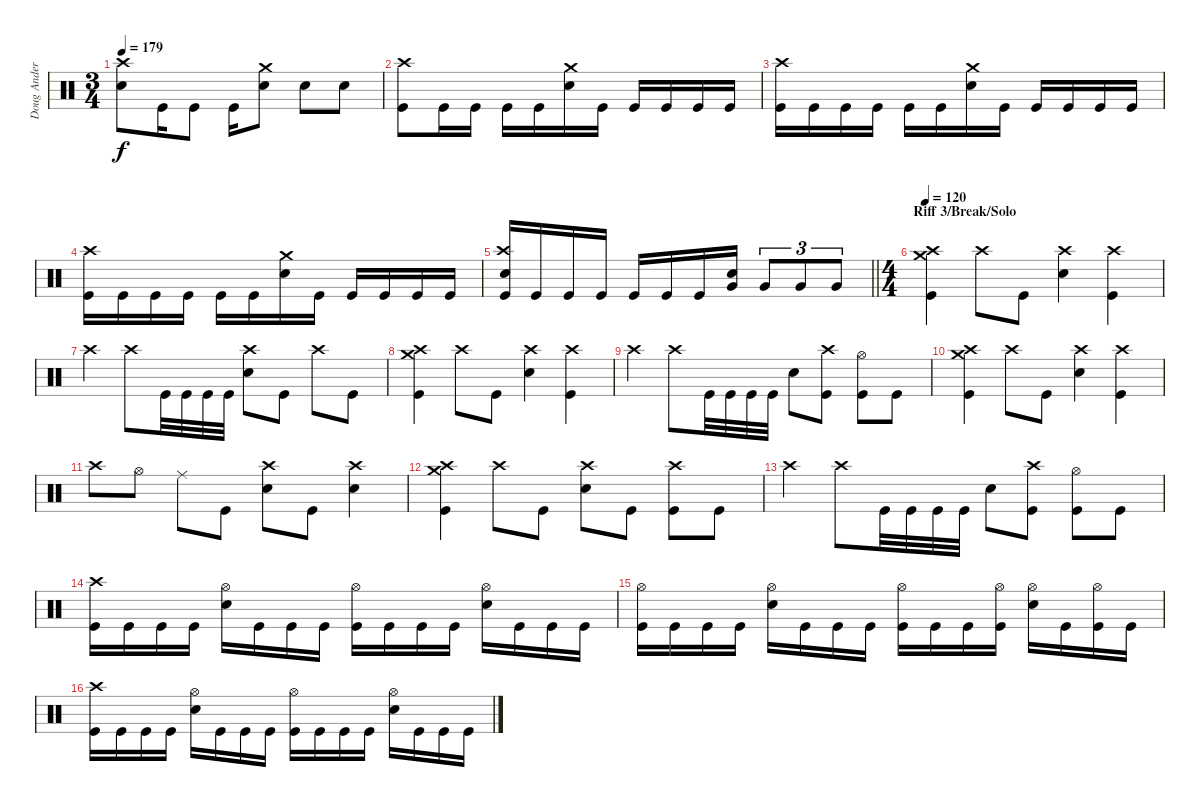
\track ("Doug Anderson" "Doug Ander") {instrument percussion}
\staff {score}
\articulation defaults
\ts (3 4)
\tempo 179
\clef neutral
\ks c
("Snare (hit) 2" "Crash high (hit)").8{dy f} "Kick (hit)".16 "Kick (hit)".8 "Kick (hit)".16 ("Snare (hit) 2" "Crash medium (hit)").8 "Snare (hit) 2".8 "Snare (hit) 2".8 |
("Kick (hit)" "Crash high (hit)").8 "Kick (hit)".16 "Kick (hit)".16 "Kick (hit)".16 "Kick (hit)".16 ("Snare (hit) 2" "Crash medium (hit)").16 "Kick (hit)".16 "Kick (hit)".16 "Kick (hit)".16 "Kick (hit)".16 "Kick (hit)".16 |
("Kick (hit)" "Crash high (hit)").16 "Kick (hit)".16 "Kick (hit)".16 "Kick (hit)".16 "Kick (hit)".16 "Kick (hit)".16 ("Snare (hit) 2" "Crash medium (hit)").16 "Kick (hit)".16 "Kick (hit)".16 "Kick (hit)".16 "Kick (hit)".16 "Kick (hit)".16 |
("Kick (hit)" "Crash high (hit)").16 "Kick (hit)".16 "Kick (hit)".16 "Kick (hit)".16 "Kick (hit)".16 "Kick (hit)".16 ("Snare (hit) 2" "Crash medium (hit)").16 "Kick (hit)".16 "Kick (hit)".16 "Kick (hit)".16 "Kick (hit)".16 "Kick (hit)".16 |
\barLineRight lightlight
("Crash high (hit)" "Snare (hit) 2" "Kick (hit)").16 "Kick (hit)".16 "Kick (hit)".16 "Kick (hit)".16 "Kick (hit)".16 "Kick (hit)".16 "Kick (hit)".16 ("Snare (hit) 2" "Very Low Tom (hit)").16 "Very Low Tom (hit)".8{tu (3 2)} "Very Low Tom (hit)".8{tu (3 2)} "Very Low Tom (hit)".8{tu (3 2)} |
\ts (4 4)
\section ("" "Riff 3/Break/Solo")
\tempo 120
("Kick (hit)" "Crash high (hit)" "Crash medium (hit)").4 "Crash high (hit)".8 "Kick (hit)".8 ("Snare (hit) 2" "Crash high (hit)").4 ("Kick (hit)" "Crash high (hit)").4 |
"Crash high (hit)".4 "Crash high (hit)".8 "Kick (hit)".32 "Kick (hit)".32 "Kick (hit)".32 "Kick (hit)".32 ("Snare (hit) 2" "Crash high (hit)").8 "Kick (hit)".8 "Crash high (hit)".8 "Kick (hit)".8 |
("Kick (hit)" "Crash high (hit)" "Crash medium (hit)").4 "Crash high (hit)".8 "Kick (hit)".8 ("Snare (hit) 2" "Crash high (hit)").4 ("Kick (hit)" "Crash high (hit)").4 |
"Crash high (hit)".4 "Crash high (hit)".8 "Kick (hit)".32 "Kick (hit)".32 "Kick (hit)".32 "Kick (hit)".32 "Snare (hit) 2".8 ("Kick (hit)" "Crash high (hit)").8 ("Kick (hit)" "Hi-Hat (open)").8 "Kick (hit)".8 |
("Kick (hit)" "Crash high (hit)" "Crash medium (hit)").4 "Crash high (hit)".8 "Kick (hit)".8 ("Snare (hit) 2" "Crash high (hit)").4 ("Kick (hit)" "Crash high (hit)").4 |
"Crash high (hit)".8 "Hi-Hat (open)".8 "Ride (middle)".8 "Kick (hit)".8 ("Snare (hit) 2" "Crash high (hit)").8 "Kick (hit)".8 ("Snare (hit) 2" "Crash high (hit)").4 |
("Kick (hit)" "Crash high (hit)" "Crash medium (hit)").4 "Crash high (hit)".8 "Kick (hit)".8 ("Snare (hit) 2" "Crash high (hit)").8 "Kick (hit)".8 ("Kick (hit)" "Crash high (hit)").8 "Kick (hit)".8 |
"Crash high (hit)".4 "Crash high (hit)".8 "Kick (hit)".32 "Kick (hit)".32 "Kick (hit)".32 "Kick (hit)".32 "Snare (hit) 2".8 ("Kick (hit)" "Crash high (hit)").8 ("Kick (hit)" "Hi-Hat (open)").8 "Kick (hit)".8 |
("Kick (hit)" "Crash high (hit)").16 "Kick (hit)".16 "Kick (hit)".16 "Kick (hit)".16 ("Snare (hit) 2" "Hi-Hat (open)").16 "Kick (hit)".16 "Kick (hit)".16 "Kick (hit)".16 ("Kick (hit)" "Hi-Hat (open)").16 "Kick (hit)".16 "Kick (hit)".16 "Kick (hit)".16 ("Snare (hit) 2" "Hi-Hat (open)").16 "Kick (hit)".16 "Kick (hit)".16 "Kick (hit)".16 |
("Kick (hit)" "Hi-Hat (open)").16 "Kick (hit)".16 "Kick (hit)".16 "Kick (hit)".16 ("Snare (hit) 2" "Hi-Hat (open)").16 "Kick (hit)".16 "Kick (hit)".16 "Kick (hit)".16 ("Kick (hit)" "Hi-Hat (open)").16 "Kick (hit)".16 "Kick (hit)".16 ("Kick (hit)" "Hi-Hat (open)").16 ("Hi-Hat (open)" "Snare (hit) 2").16 "Kick (hit)".16 ("Kick (hit)" "Hi-Hat (open)").16 "Kick (hit)".16 |
("Kick (hit)" "Crash high (hit)").16 "Kick (hit)".16 "Kick (hit)".16 "Kick (hit)".16 ("Snare (hit) 2" "Hi-Hat (open)").16 "Kick (hit)".16 "Kick (hit)".16 "Kick (hit)".16 ("Kick (hit)" "Hi-Hat (open)").16 "Kick (hit)".16 "Kick (hit)".16 "Kick (hit)".16 ("Snare (hit) 2" "Hi-Hat (open)").16 "Kick (hit)".16 "Kick (hit)".16 "Kick (hit)".16
